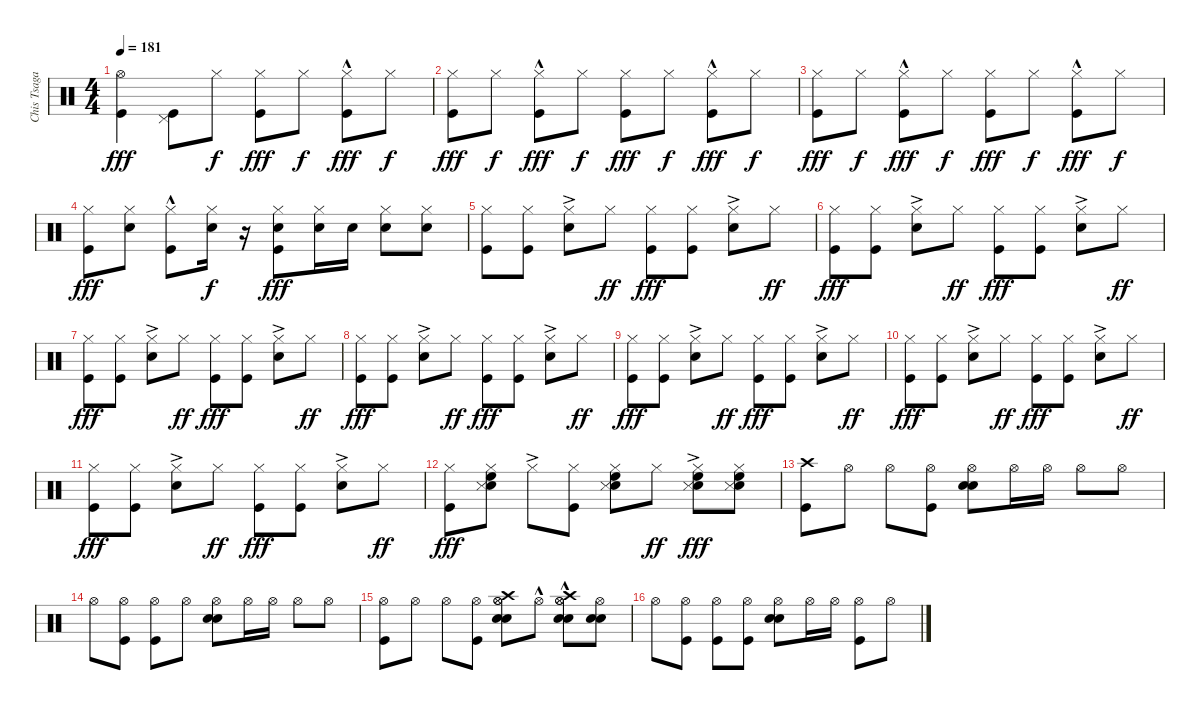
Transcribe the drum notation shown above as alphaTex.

\track ("Chis Tsagakis" "Chis Tsaga") {instrument percussion}
\staff {score}
\articulation defaults
\ts (4 4)
\tempo 181
\clef neutral
\ks c
("Hi-Hat (open)" "Kick (hit)").4{dy fff} ("Pedal Hi-Hat (hit)" "Kick (hit)").8 "Hi-Hat (closed)".8{dy f} ("Hi-Hat (closed)" "Kick (hit)").8{dy fff} "Hi-Hat (closed)".8{dy f} ("Hi-Hat (closed)"{hac} "Kick (hit)").8{dy fff} "Hi-Hat (closed)".8{dy f} |
("Hi-Hat (closed)" "Kick (hit)").8{dy fff} "Hi-Hat (closed)".8{dy f} ("Hi-Hat (closed)"{hac} "Kick (hit)").8{dy fff} "Hi-Hat (closed)".8{dy f} ("Hi-Hat (closed)" "Kick (hit)").8{dy fff} "Hi-Hat (closed)".8{dy f} ("Hi-Hat (closed)"{hac} "Kick (hit)").8{dy fff} "Hi-Hat (closed)".8{dy f} |
("Hi-Hat (closed)" "Kick (hit)").8{dy fff} "Hi-Hat (closed)".8{dy f} ("Hi-Hat (closed)"{hac} "Kick (hit)").8{dy fff} "Hi-Hat (closed)".8{dy f} ("Hi-Hat (closed)" "Kick (hit)").8{dy fff} "Hi-Hat (closed)".8{dy f} ("Hi-Hat (closed)"{hac} "Kick (hit)").8{dy fff} "Hi-Hat (closed)".8{dy f} |
("Hi-Hat (closed)" "Kick (hit)").8{dy fff} ("Hi-Hat (closed)" "Snare (hit) 2").8 ("Hi-Hat (closed)"{hac} "Kick (hit)").8 ("Hi-Hat (closed)" "Snare (hit) 2").16{dy f} r.16 ("Hi-Hat (closed)" "Snare (hit) 2" "Kick (hit)").8{dy fff} ("Hi-Hat (closed)" "Electric Snare (hit)").16 "Electric Snare (hit)".16 ("Hi-Hat (closed)" "Electric Snare (hit)").8 ("Hi-Hat (closed)" "Electric Snare (hit)").8 |
("Hi-Hat (closed)" "Kick (hit)").8 ("Hi-Hat (closed)" "Kick (hit)").8 ("Hi-Hat (closed)"{ac} "Electric Snare (hit)").8 "Hi-Hat (closed)".8{dy ff} ("Hi-Hat (closed)" "Kick (hit)").8{dy fff} ("Hi-Hat (closed)" "Kick (hit)").8 ("Hi-Hat (closed)"{ac} "Electric Snare (hit)").8 "Hi-Hat (closed)".8{dy ff} |
("Hi-Hat (closed)" "Kick (hit)").8{dy fff} ("Hi-Hat (closed)" "Kick (hit)").8 ("Hi-Hat (closed)"{ac} "Electric Snare (hit)").8 "Hi-Hat (closed)".8{dy ff} ("Hi-Hat (closed)" "Kick (hit)").8{dy fff} ("Hi-Hat (closed)" "Kick (hit)").8 ("Hi-Hat (closed)"{ac} "Electric Snare (hit)").8 "Hi-Hat (closed)".8{dy ff} |
("Hi-Hat (closed)" "Kick (hit)").8{dy fff} ("Hi-Hat (closed)" "Kick (hit)").8 ("Hi-Hat (closed)"{ac} "Electric Snare (hit)").8 "Hi-Hat (closed)".8{dy ff} ("Hi-Hat (closed)" "Kick (hit)").8{dy fff} ("Hi-Hat (closed)" "Kick (hit)").8 ("Hi-Hat (closed)"{ac} "Electric Snare (hit)").8 "Hi-Hat (closed)".8{dy ff} |
("Hi-Hat (closed)" "Kick (hit)").8{dy fff} ("Hi-Hat (closed)" "Kick (hit)").8 ("Hi-Hat (closed)"{ac} "Electric Snare (hit)").8 "Hi-Hat (closed)".8{dy ff} ("Hi-Hat (closed)" "Kick (hit)").8{dy fff} ("Hi-Hat (closed)" "Kick (hit)").8 ("Hi-Hat (closed)"{ac} "Electric Snare (hit)").8 "Hi-Hat (closed)".8{dy ff} |
("Hi-Hat (closed)" "Kick (hit)").8{dy fff} ("Hi-Hat (closed)" "Kick (hit)").8 ("Hi-Hat (closed)"{ac} "Electric Snare (hit)").8 "Hi-Hat (closed)".8{dy ff} ("Hi-Hat (closed)" "Kick (hit)").8{dy fff} ("Hi-Hat (closed)" "Kick (hit)").8 ("Hi-Hat (closed)"{ac} "Electric Snare (hit)").8 "Hi-Hat (closed)".8{dy ff} |
("Hi-Hat (closed)" "Kick (hit)").8{dy fff} ("Hi-Hat (closed)" "Kick (hit)").8 ("Hi-Hat (closed)"{ac} "Electric Snare (hit)").8 "Hi-Hat (closed)".8{dy ff} ("Hi-Hat (closed)" "Kick (hit)").8{dy fff} ("Hi-Hat (closed)" "Kick (hit)").8 ("Hi-Hat (closed)"{ac} "Electric Snare (hit)").8 "Hi-Hat (closed)".8{dy ff} |
("Hi-Hat (closed)" "Kick (hit)").8{dy fff} ("Hi-Hat (closed)" "Kick (hit)").8 ("Hi-Hat (closed)"{ac} "Electric Snare (hit)").8 "Hi-Hat (closed)".8{dy ff} ("Hi-Hat (closed)" "Kick (hit)").8{dy fff} ("Hi-Hat (closed)" "Kick (hit)").8 ("Hi-Hat (closed)"{ac} "Electric Snare (hit)").8 "Hi-Hat (closed)".8{dy ff} |
("Hi-Hat (closed)" "Kick (hit)").8{dy fff} ("Hi-Hat (closed)" "Snare (hit) 2" "Snare (side stick) 3" "High Floor Tom (hit)").8 "Hi-Hat (closed)"{ac}.8 ("Hi-Hat (closed)" "Kick (hit)").8 ("Hi-Hat (closed)" "Snare (hit) 2" "Snare (side stick) 3" "High Floor Tom (hit)").8 "Hi-Hat (closed)".8{dy ff} ("Hi-Hat (closed)"{ac} "Snare (hit) 2" "Snare (side stick) 3" "High Floor Tom (hit)").8{dy fff} ("Hi-Hat (closed)" "Snare (hit) 2" "Snare (side stick) 3" "High Floor Tom (hit)").8 |
("Crash high (hit)" "Kick (hit)").8 "Hi-Hat (open)".8 "Hi-Hat (open)".8 ("Hi-Hat (open)" "Kick (hit)").8 ("Hi-Hat (open)" "Electric Snare (hit)" "Electric Snare (hit)").8 "Hi-Hat (open)".16 "Hi-Hat (open)".16 "Hi-Hat (open)".8 "Hi-Hat (open)".8 |
"Hi-Hat (open)".8 ("Hi-Hat (open)" "Kick (hit)").8 ("Hi-Hat (open)" "Kick (hit)").8 "Hi-Hat (open)".8 ("Hi-Hat (open)" "Electric Snare (hit)" "Electric Snare (hit)").8 "Hi-Hat (open)".16 "Hi-Hat (open)".16 "Hi-Hat (open)".8 "Hi-Hat (open)".8 |
("Hi-Hat (open)" "Kick (hit)").8 "Hi-Hat (open)".8 "Hi-Hat (open)".8 ("Hi-Hat (open)" "Kick (hit)").8 ("Hi-Hat (open)" "Crash high (hit)" "Hi-Hat (open)" "Electric Snare (hit)" "Electric Snare (hit)").8 "Hi-Hat (open)"{hac}.8 ("Hi-Hat (open)"{hac} "Crash high (hit)" "Hi-Hat (open)" "Electric Snare (hit)" "Electric Snare (hit)").8 ("Hi-Hat (open)" "Electric Snare (hit)" "Electric Snare (hit)").8 |
"Hi-Hat (open)".8 ("Hi-Hat (open)" "Kick (hit)").8 ("Hi-Hat (open)" "Kick (hit)").8 ("Hi-Hat (open)" "Kick (hit)").8 ("Hi-Hat (open)" "Electric Snare (hit)" "Electric Snare (hit)").8 "Hi-Hat (open)".16 "Hi-Hat (open)".16 ("Hi-Hat (open)" "Kick (hit)").8 "Hi-Hat (open)".8
